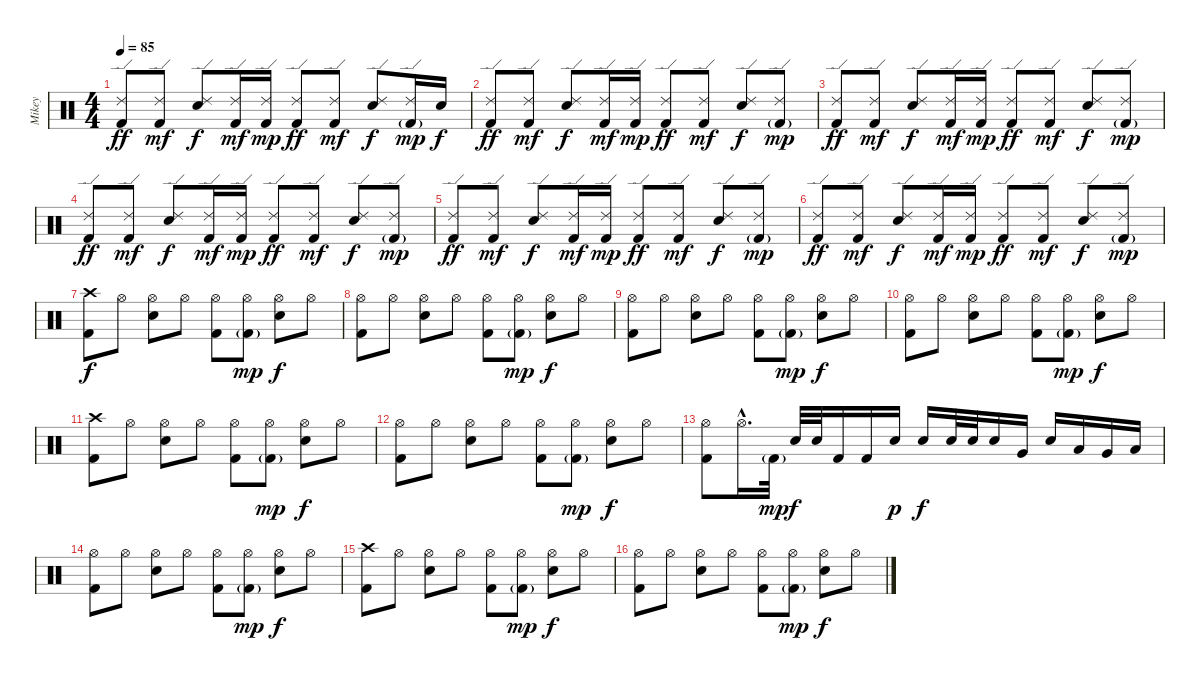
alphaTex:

\track ("Mikey" "Mikey") {instrument percussion}
\staff {score}
\articulation defaults
\ts (4 4)
\tempo 85
\clef neutral
\ks c
("Ride (edge) 2" "Kick (hit) 2").8{dy ff} ("Ride (edge) 2" "Kick (hit) 2").8{dy mf} ("Ride (edge) 2" "Snare (hit) 2").8{dy f} ("Ride (edge) 2" "Kick (hit) 2").16{dy mf} ("Ride (edge) 2" "Kick (hit) 2").16{dy mp} ("Ride (edge) 2" "Kick (hit) 2").8{dy ff} ("Ride (edge) 2" "Kick (hit) 2").8{dy mf} ("Ride (edge) 2" "Snare (hit) 2").8{dy f} ("Ride (edge) 2" "Kick (hit) 2"{g}).16{dy mp} "Snare (hit) 2".16{dy f} |
("Ride (edge) 2" "Kick (hit) 2").8{dy ff} ("Ride (edge) 2" "Kick (hit) 2").8{dy mf} ("Ride (edge) 2" "Snare (hit) 2").8{dy f} ("Ride (edge) 2" "Kick (hit) 2").16{dy mf} ("Ride (edge) 2" "Kick (hit) 2").16{dy mp} ("Ride (edge) 2" "Kick (hit) 2").8{dy ff} ("Ride (edge) 2" "Kick (hit) 2").8{dy mf} ("Ride (edge) 2" "Snare (hit) 2").8{dy f} ("Ride (edge) 2" "Kick (hit) 2"{g}).8{dy mp} |
("Ride (edge) 2" "Kick (hit) 2").8{dy ff} ("Ride (edge) 2" "Kick (hit) 2").8{dy mf} ("Ride (edge) 2" "Snare (hit) 2").8{dy f} ("Ride (edge) 2" "Kick (hit) 2").16{dy mf} ("Ride (edge) 2" "Kick (hit) 2").16{dy mp} ("Ride (edge) 2" "Kick (hit) 2").8{dy ff} ("Ride (edge) 2" "Kick (hit) 2").8{dy mf} ("Ride (edge) 2" "Snare (hit) 2").8{dy f} ("Ride (edge) 2" "Kick (hit) 2"{g}).8{dy mp} |
("Ride (edge) 2" "Kick (hit) 2").8{dy ff} ("Ride (edge) 2" "Kick (hit) 2").8{dy mf} ("Ride (edge) 2" "Snare (hit) 2").8{dy f} ("Ride (edge) 2" "Kick (hit) 2").16{dy mf} ("Ride (edge) 2" "Kick (hit) 2").16{dy mp} ("Ride (edge) 2" "Kick (hit) 2").8{dy ff} ("Ride (edge) 2" "Kick (hit) 2").8{dy mf} ("Ride (edge) 2" "Snare (hit) 2").8{dy f} ("Ride (edge) 2" "Kick (hit) 2"{g}).8{dy mp} |
("Ride (edge) 2" "Kick (hit) 2").8{dy ff} ("Ride (edge) 2" "Kick (hit) 2").8{dy mf} ("Ride (edge) 2" "Snare (hit) 2").8{dy f} ("Ride (edge) 2" "Kick (hit) 2").16{dy mf} ("Ride (edge) 2" "Kick (hit) 2").16{dy mp} ("Ride (edge) 2" "Kick (hit) 2").8{dy ff} ("Ride (edge) 2" "Kick (hit) 2").8{dy mf} ("Ride (edge) 2" "Snare (hit) 2").8{dy f} ("Ride (edge) 2" "Kick (hit) 2"{g}).8{dy mp} |
("Ride (edge) 2" "Kick (hit) 2").8{dy ff} ("Ride (edge) 2" "Kick (hit) 2").8{dy mf} ("Ride (edge) 2" "Snare (hit) 2").8{dy f} ("Ride (edge) 2" "Kick (hit) 2").16{dy mf} ("Ride (edge) 2" "Kick (hit) 2").16{dy mp} ("Ride (edge) 2" "Kick (hit) 2").8{dy ff} ("Ride (edge) 2" "Kick (hit) 2").8{dy mf} ("Ride (edge) 2" "Snare (hit) 2").8{dy f} ("Ride (edge) 2" "Kick (hit) 2"{g}).8{dy mp} |
("Crash high (hit)" "Kick (hit) 2").8{dy f} "Hi-Hat (open)".8 ("Hi-Hat (open)" "Snare (hit) 2").8 "Hi-Hat (open)".8 ("Hi-Hat (open)" "Kick (hit) 2").8 ("Hi-Hat (open)" "Kick (hit) 2"{g}).8{dy mp} ("Hi-Hat (open)" "Snare (hit) 2").8{dy f} "Hi-Hat (open)".8 |
("Hi-Hat (open)" "Kick (hit) 2").8 "Hi-Hat (open)".8 ("Hi-Hat (open)" "Snare (hit) 2").8 "Hi-Hat (open)".8 ("Hi-Hat (open)" "Kick (hit) 2").8 ("Hi-Hat (open)" "Kick (hit) 2"{g}).8{dy mp} ("Hi-Hat (open)" "Snare (hit) 2").8{dy f} "Hi-Hat (open)".8 |
("Hi-Hat (open)" "Kick (hit) 2").8 "Hi-Hat (open)".8 ("Hi-Hat (open)" "Snare (hit) 2").8 "Hi-Hat (open)".8 ("Hi-Hat (open)" "Kick (hit) 2").8 ("Hi-Hat (open)" "Kick (hit) 2"{g}).8{dy mp} ("Hi-Hat (open)" "Snare (hit) 2").8{dy f} "Hi-Hat (open)".8 |
("Hi-Hat (open)" "Kick (hit) 2").8 "Hi-Hat (open)".8 ("Hi-Hat (open)" "Snare (hit) 2").8 "Hi-Hat (open)".8 ("Hi-Hat (open)" "Kick (hit) 2").8 ("Hi-Hat (open)" "Kick (hit) 2"{g}).8{dy mp} ("Hi-Hat (open)" "Snare (hit) 2").8{dy f} "Hi-Hat (open)".8 |
("Crash high (hit)" "Kick (hit) 2").8 "Hi-Hat (open)".8 ("Hi-Hat (open)" "Snare (hit) 2").8 "Hi-Hat (open)".8 ("Hi-Hat (open)" "Kick (hit) 2").8 ("Hi-Hat (open)" "Kick (hit) 2"{g}).8{dy mp} ("Hi-Hat (open)" "Snare (hit) 2").8{dy f} "Hi-Hat (open)".8 |
("Hi-Hat (open)" "Kick (hit) 2").8 "Hi-Hat (open)".8 ("Hi-Hat (open)" "Snare (hit) 2").8 "Hi-Hat (open)".8 ("Hi-Hat (open)" "Kick (hit) 2").8 ("Hi-Hat (open)" "Kick (hit) 2"{g}).8{dy mp} ("Hi-Hat (open)" "Snare (hit) 2").8{dy f} "Hi-Hat (open)".8 |
("Hi-Hat (open)" "Kick (hit) 2").8 "Hi-Hat (open)"{hac}.16{d} "Kick (hit) 2"{g}.32{dy mp} "Snare (hit) 2".32{dy f} "Snare (hit) 2".32 "Kick (hit) 2".16 "Kick (hit) 2".16 "Snare (hit) 2".16{dy p} "Snare (hit) 2".16{dy f} "Snare (hit) 2".32 "Snare (hit) 2".32 "Snare (hit) 2".16 "Very Low Tom (hit)".16 "Snare (hit) 2".16 "Low Tom (hit)".16 "Very Low Tom (hit)".16 "Low Floor Tom (hit)".16 |
("Hi-Hat (open)" "Kick (hit) 2").8 "Hi-Hat (open)".8 ("Hi-Hat (open)" "Snare (hit) 2").8 "Hi-Hat (open)".8 ("Hi-Hat (open)" "Kick (hit) 2").8 ("Hi-Hat (open)" "Kick (hit) 2"{g}).8{dy mp} ("Hi-Hat (open)" "Snare (hit) 2").8{dy f} "Hi-Hat (open)".8 |
("Crash high (hit)" "Kick (hit) 2").8 "Hi-Hat (open)".8 ("Hi-Hat (open)" "Snare (hit) 2").8 "Hi-Hat (open)".8 ("Hi-Hat (open)" "Kick (hit) 2").8 ("Hi-Hat (open)" "Kick (hit) 2"{g}).8{dy mp} ("Hi-Hat (open)" "Snare (hit) 2").8{dy f} "Hi-Hat (open)".8 |
("Hi-Hat (open)" "Kick (hit) 2").8 "Hi-Hat (open)".8 ("Hi-Hat (open)" "Snare (hit) 2").8 "Hi-Hat (open)".8 ("Hi-Hat (open)" "Kick (hit) 2").8 ("Hi-Hat (open)" "Kick (hit) 2"{g}).8{dy mp} ("Hi-Hat (open)" "Snare (hit) 2").8{dy f} "Hi-Hat (open)".8
